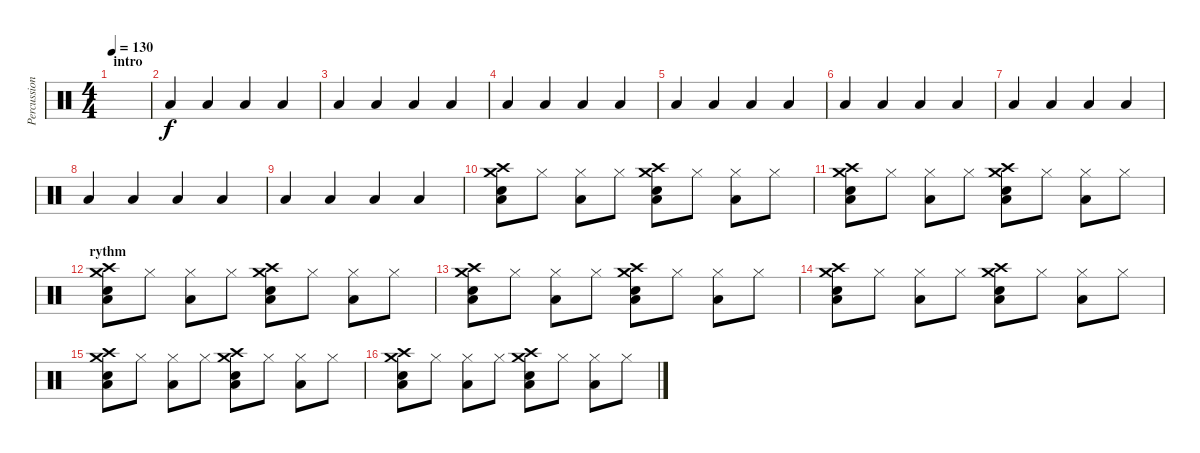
\track ("Percussions" "Percussion") {instrument percussion}
\staff {score}
\articulation defaults
\ts (4 4)
\section ("" "intro")
\tempo 130
\clef neutral
\ks c
|
"Low Floor Tom (hit)".4 "Low Floor Tom (hit)".4 "Low Floor Tom (hit)".4 "Low Floor Tom (hit)".4 |
"Low Floor Tom (hit)".4 "Low Floor Tom (hit)".4 "Low Floor Tom (hit)".4 "Low Floor Tom (hit)".4 |
"Low Floor Tom (hit)".4 "Low Floor Tom (hit)".4 "Low Floor Tom (hit)".4 "Low Floor Tom (hit)".4 |
"Low Floor Tom (hit)".4 "Low Floor Tom (hit)".4 "Low Floor Tom (hit)".4 "Low Floor Tom (hit)".4 |
"Low Floor Tom (hit)".4 "Low Floor Tom (hit)".4 "Low Floor Tom (hit)".4 "Low Floor Tom (hit)".4 |
"Low Floor Tom (hit)".4 "Low Floor Tom (hit)".4 "Low Floor Tom (hit)".4 "Low Floor Tom (hit)".4 |
"Low Floor Tom (hit)".4 "Low Floor Tom (hit)".4 "Low Floor Tom (hit)".4 "Low Floor Tom (hit)".4 |
"Low Floor Tom (hit)".4 "Low Floor Tom (hit)".4 "Low Floor Tom (hit)".4 "Low Floor Tom (hit)".4 |
("Low Floor Tom (hit)" "Snare (hit) 2" "Crash high (hit)" "Crash medium (hit)").8 "Hi-Hat (closed)".8 ("Low Floor Tom (hit)" "Hi-Hat (closed)").8 "Hi-Hat (closed)".8 ("Low Floor Tom (hit)" "Snare (hit) 2" "Crash high (hit)" "Crash medium (hit)").8 "Hi-Hat (closed)".8 ("Low Floor Tom (hit)" "Hi-Hat (closed)").8 "Hi-Hat (closed)".8 |
("Low Floor Tom (hit)" "Snare (hit) 2" "Crash high (hit)" "Crash medium (hit)").8 "Hi-Hat (closed)".8 ("Low Floor Tom (hit)" "Hi-Hat (closed)").8 "Hi-Hat (closed)".8 ("Low Floor Tom (hit)" "Snare (hit) 2" "Crash high (hit)" "Crash medium (hit)").8 "Hi-Hat (closed)".8 ("Low Floor Tom (hit)" "Hi-Hat (closed)").8 "Hi-Hat (closed)".8 |
\section ("" "rythm")
("Low Floor Tom (hit)" "Snare (hit) 2" "Crash high (hit)" "Crash medium (hit)").8 "Hi-Hat (closed)".8 ("Low Floor Tom (hit)" "Hi-Hat (closed)").8 "Hi-Hat (closed)".8 ("Low Floor Tom (hit)" "Snare (hit) 2" "Crash high (hit)" "Crash medium (hit)").8 "Hi-Hat (closed)".8 ("Low Floor Tom (hit)" "Hi-Hat (closed)").8 "Hi-Hat (closed)".8 |
("Low Floor Tom (hit)" "Snare (hit) 2" "Crash high (hit)" "Crash medium (hit)").8 "Hi-Hat (closed)".8 ("Low Floor Tom (hit)" "Hi-Hat (closed)").8 "Hi-Hat (closed)".8 ("Low Floor Tom (hit)" "Snare (hit) 2" "Crash high (hit)" "Crash medium (hit)").8 "Hi-Hat (closed)".8 ("Low Floor Tom (hit)" "Hi-Hat (closed)").8 "Hi-Hat (closed)".8 |
("Low Floor Tom (hit)" "Snare (hit) 2" "Crash high (hit)" "Crash medium (hit)").8 "Hi-Hat (closed)".8 ("Low Floor Tom (hit)" "Hi-Hat (closed)").8 "Hi-Hat (closed)".8 ("Low Floor Tom (hit)" "Snare (hit) 2" "Crash high (hit)" "Crash medium (hit)").8 "Hi-Hat (closed)".8 ("Low Floor Tom (hit)" "Hi-Hat (closed)").8 "Hi-Hat (closed)".8 |
("Low Floor Tom (hit)" "Snare (hit) 2" "Crash high (hit)" "Crash medium (hit)").8 "Hi-Hat (closed)".8 ("Low Floor Tom (hit)" "Hi-Hat (closed)").8 "Hi-Hat (closed)".8 ("Low Floor Tom (hit)" "Snare (hit) 2" "Crash high (hit)" "Crash medium (hit)").8 "Hi-Hat (closed)".8 ("Low Floor Tom (hit)" "Hi-Hat (closed)").8 "Hi-Hat (closed)".8 |
("Low Floor Tom (hit)" "Snare (hit) 2" "Crash high (hit)" "Crash medium (hit)").8 "Hi-Hat (closed)".8 ("Low Floor Tom (hit)" "Hi-Hat (closed)").8 "Hi-Hat (closed)".8 ("Low Floor Tom (hit)" "Snare (hit) 2" "Crash high (hit)" "Crash medium (hit)").8 "Hi-Hat (closed)".8 ("Low Floor Tom (hit)" "Hi-Hat (closed)").8 "Hi-Hat (closed)".8
